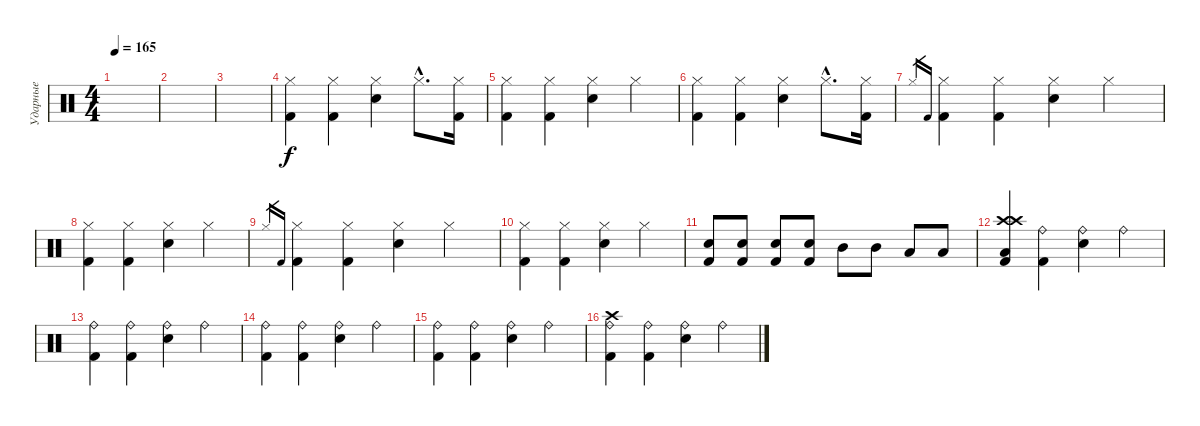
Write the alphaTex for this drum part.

\track ("Ударные" "Ударные") {instrument percussion}
\staff {score}
\articulation defaults
\ts (4 4)
\tempo 165
\clef neutral
\ks c
|
|
|
("Hi-Hat (closed)" "Kick (hit) 2").4 ("Hi-Hat (closed)" "Kick (hit) 2").4 ("Hi-Hat (closed)" "Snare (hit) 2").4 "Hi-Hat (closed)"{hac}.8{d} ("Hi-Hat (closed)" "Kick (hit) 2").16 |
("Hi-Hat (closed)" "Kick (hit) 2").4 ("Hi-Hat (closed)" "Kick (hit) 2").4 ("Hi-Hat (closed)" "Snare (hit) 2").4 "Hi-Hat (closed)".4 |
("Hi-Hat (closed)" "Kick (hit) 2").4 ("Hi-Hat (closed)" "Kick (hit) 2").4 ("Hi-Hat (closed)" "Snare (hit) 2").4 "Hi-Hat (closed)"{hac}.8{d} ("Hi-Hat (closed)" "Kick (hit) 2").16 |
"Hi-Hat (closed)".16{gr} "Kick (hit) 2".16{gr} ("Hi-Hat (closed)" "Kick (hit) 2").4 ("Hi-Hat (closed)" "Kick (hit) 2").4 ("Hi-Hat (closed)" "Snare (hit) 2").4 "Hi-Hat (closed)".4 |
("Hi-Hat (closed)" "Kick (hit) 2").4 ("Hi-Hat (closed)" "Kick (hit) 2").4 ("Hi-Hat (closed)" "Snare (hit) 2").4 "Hi-Hat (closed)".4 |
"Hi-Hat (closed)".16{gr} "Kick (hit) 2".16{gr} ("Hi-Hat (closed)" "Kick (hit) 2").4 ("Hi-Hat (closed)" "Kick (hit) 2").4 ("Hi-Hat (closed)" "Snare (hit) 2").4 "Hi-Hat (closed)".4 |
("Hi-Hat (closed)" "Kick (hit) 2").4 ("Hi-Hat (closed)" "Kick (hit) 2").4 ("Hi-Hat (closed)" "Snare (hit) 2").4 "Hi-Hat (closed)".4 |
("Snare (hit) 2" "Kick (hit) 2").8 ("Kick (hit) 2" "Snare (hit) 2").8 ("Kick (hit) 2" "Snare (hit) 2").8 ("Snare (hit) 2" "Kick (hit) 2").8 "Mid Tom (hit)".8 "Mid Tom (hit)".8 "Low Tom (hit)".8 "Low Tom (hit)".8 |
("Crash high (hit)" "Crash high (hit)" "Kick (hit) 2" "Low Floor Tom (hit)").4 ("Ride (bell)" "Kick (hit) 2").4 ("Ride (bell)" "Snare (hit) 2").4 "Ride (bell)".4 |
("Ride (bell)" "Kick (hit) 2").4 ("Ride (bell)" "Kick (hit) 2").4 ("Ride (bell)" "Snare (hit) 2").4 "Ride (bell)".4 |
("Ride (bell)" "Kick (hit) 2").4 ("Ride (bell)" "Kick (hit) 2").4 ("Ride (bell)" "Snare (hit) 2").4 "Ride (bell)".4 |
("Ride (bell)" "Kick (hit) 2").4 ("Ride (bell)" "Kick (hit) 2").4 ("Ride (bell)" "Snare (hit) 2").4 "Ride (bell)".4 |
("Crash high (hit)" "Ride (bell)" "Kick (hit) 2").4 ("Ride (bell)" "Kick (hit) 2").4 ("Ride (bell)" "Snare (hit) 2").4 "Ride (bell)".4
